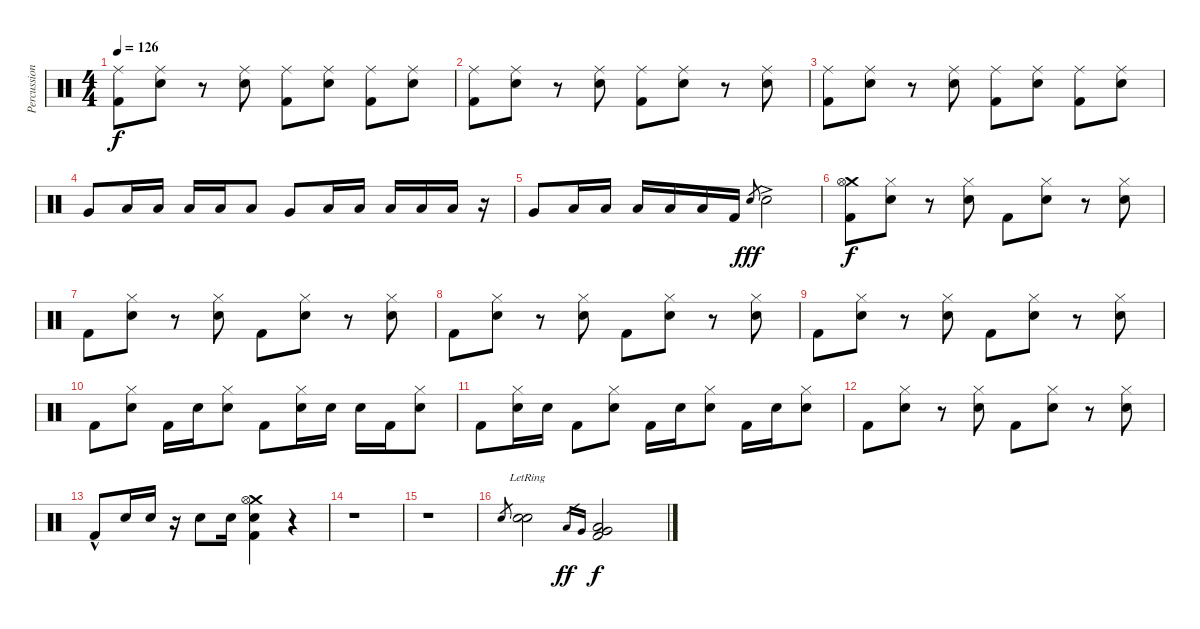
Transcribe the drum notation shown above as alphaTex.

\track ("Percussions" "Percussion") {instrument percussion}
\staff {score}
\articulation defaults
\ts (4 4)
\tempo 126
\clef neutral
\ks c
("Kick (hit) 2" "Ride (middle)").8{dy f} ("Snare (hit) 2" "Ride (middle)").8 r.8 ("Snare (hit) 2" "Ride (middle)").8 ("Kick (hit) 2" "Ride (middle)").8 ("Snare (hit) 2" "Ride (middle)").8 ("Kick (hit) 2" "Ride (middle)").8 ("Snare (hit) 2" "Ride (middle)").8 |
("Kick (hit) 2" "Ride (middle)").8 ("Snare (hit) 2" "Ride (middle)").8 r.8 ("Snare (hit) 2" "Ride (middle)").8 ("Kick (hit) 2" "Ride (middle)").8 ("Snare (hit) 2" "Ride (middle)").8 r.8 ("Snare (hit) 2" "Ride (middle)").8 |
("Kick (hit) 2" "Ride (middle)").8 ("Snare (hit) 2" "Ride (middle)").8 r.8 ("Snare (hit) 2" "Ride (middle)").8 ("Kick (hit) 2" "Ride (middle)").8 ("Snare (hit) 2" "Ride (middle)").8 ("Kick (hit) 2" "Ride (middle)").8 ("Snare (hit) 2" "Ride (middle)").8 |
"Very Low Tom (hit)".8 "Low Floor Tom (hit)".16 "Low Floor Tom (hit)".16 "Low Floor Tom (hit)".16 "Low Floor Tom (hit)".16 "Low Floor Tom (hit)".8 "Very Low Tom (hit)".8 "Low Floor Tom (hit)".16 "Low Floor Tom (hit)".16 "Low Floor Tom (hit)".16 "Low Floor Tom (hit)".16 "Low Floor Tom (hit)".16 r.16 |
"Very Low Tom (hit)".8 "Low Floor Tom (hit)".16 "Low Floor Tom (hit)".16 "Low Floor Tom (hit)".16 "Low Floor Tom (hit)".16 "Low Floor Tom (hit)".16 "Kick (hit) 2".16 "Snare (hit) 2".8{gr dy fff} "Snare (hit) 2"{ac}.2 |
("Kick (hit) 2" "Crash medium (hit)" "Hi-Hat (open)").8{dy f} ("Snare (hit) 2" "Hi-Hat (closed)").8 r.8 ("Snare (hit) 2" "Hi-Hat (closed)").8 "Kick (hit) 2".8 ("Snare (hit) 2" "Hi-Hat (closed)").8 r.8 ("Snare (hit) 2" "Hi-Hat (closed)").8 |
"Kick (hit) 2".8 ("Snare (hit) 2" "Hi-Hat (closed)").8 r.8 ("Snare (hit) 2" "Hi-Hat (closed)").8 "Kick (hit) 2".8 ("Snare (hit) 2" "Hi-Hat (closed)").8 r.8 ("Snare (hit) 2" "Hi-Hat (closed)").8 |
"Kick (hit) 2".8 ("Snare (hit) 2" "Hi-Hat (closed)").8 r.8 ("Snare (hit) 2" "Hi-Hat (closed)").8 "Kick (hit) 2".8 ("Snare (hit) 2" "Hi-Hat (closed)").8 r.8 ("Snare (hit) 2" "Hi-Hat (closed)").8 |
"Kick (hit) 2".8 ("Snare (hit) 2" "Hi-Hat (closed)").8 r.8 ("Snare (hit) 2" "Hi-Hat (closed)").8 "Kick (hit) 2".8 ("Snare (hit) 2" "Hi-Hat (closed)").8 r.8 ("Snare (hit) 2" "Hi-Hat (closed)").8 |
"Kick (hit) 2".8 ("Snare (hit) 2" "Hi-Hat (closed)").8 "Kick (hit) 2".16 "Snare (hit) 2".16 ("Snare (hit) 2" "Hi-Hat (closed)").8 "Kick (hit) 2".8 ("Snare (hit) 2" "Hi-Hat (closed)").16 "Snare (hit) 2".16 "Snare (hit) 2".16 "Kick (hit) 2".16 ("Snare (hit) 2" "Hi-Hat (closed)").8 |
"Kick (hit) 2".8 ("Snare (hit) 2" "Hi-Hat (closed)").16 "Snare (hit) 2".16 "Kick (hit) 2".8 ("Snare (hit) 2" "Hi-Hat (closed)").8 "Kick (hit) 2".16 "Snare (hit) 2".16 ("Snare (hit) 2" "Hi-Hat (closed)").8 "Kick (hit) 2".16 "Snare (hit) 2".16 ("Snare (hit) 2" "Hi-Hat (closed)").8 |
"Kick (hit) 2".8 ("Snare (hit) 2" "Hi-Hat (closed)").8 r.8 ("Snare (hit) 2" "Hi-Hat (closed)").8 "Kick (hit) 2".8 ("Snare (hit) 2" "Hi-Hat (closed)").8 r.8 ("Snare (hit) 2" "Hi-Hat (closed)").8 |
"Kick (hit) 2"{hac}.8 "Snare (hit) 2".16 "Snare (hit) 2".16 r.16 "Snare (hit) 2".8 "Snare (hit) 2".16 ("Kick (hit) 2" "Snare (hit) 2" "Crash medium (hit)" "Hi-Hat (open)").4 r.4 |
r.1 |
r.1 |
"Snare (hit) 2".8{gr} ("Snare (hit) 2" "Electric Snare (hit)"{lr}).2 "Low Floor Tom (hit)".16{gr dy ff} "Very Low Tom (hit)".16{gr} ("Kick (hit) 2" "Low Floor Tom (hit)" "Very Low Tom (hit)").2{dy f}
